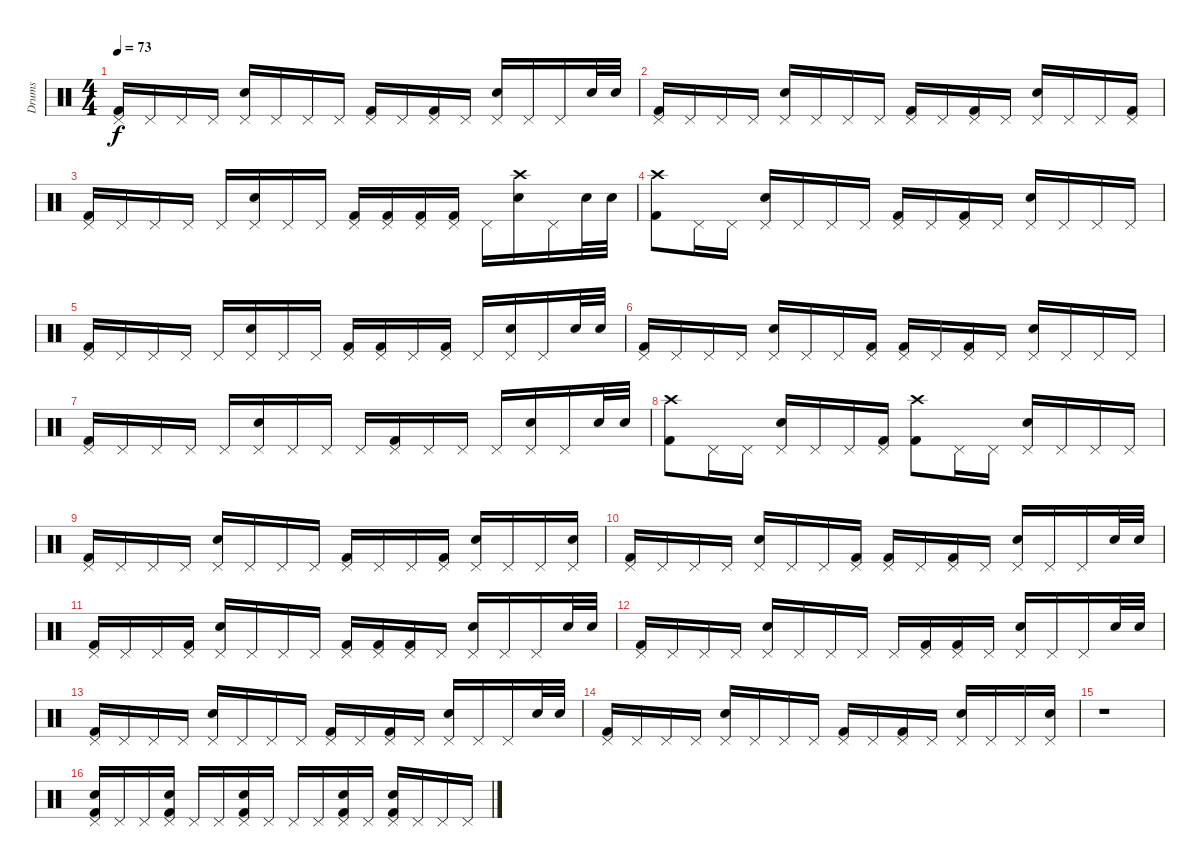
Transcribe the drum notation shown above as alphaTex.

\track ("Drums" "Drums") {instrument percussion}
\staff {score}
\articulation defaults
\ts (4 4)
\tempo 73
\clef neutral
\ks c
("Pedal Hi-Hat (hit)" "Kick (hit) 2").16{dy f} "Pedal Hi-Hat (hit)".16 "Pedal Hi-Hat (hit)".16 "Pedal Hi-Hat (hit)".16 ("Pedal Hi-Hat (hit)" "Snare (hit) 2").16 "Pedal Hi-Hat (hit)".16 "Pedal Hi-Hat (hit)".16 "Pedal Hi-Hat (hit)".16 ("Pedal Hi-Hat (hit)" "Kick (hit) 2").16 "Pedal Hi-Hat (hit)".16 ("Pedal Hi-Hat (hit)" "Kick (hit) 2").16 "Pedal Hi-Hat (hit)".16 ("Pedal Hi-Hat (hit)" "Snare (hit) 2").16 "Pedal Hi-Hat (hit)".16 "Pedal Hi-Hat (hit)".16 "Snare (hit) 2".32 "Snare (hit) 2".32 |
("Pedal Hi-Hat (hit)" "Kick (hit) 2").16 "Pedal Hi-Hat (hit)".16 "Pedal Hi-Hat (hit)".16 "Pedal Hi-Hat (hit)".16 ("Pedal Hi-Hat (hit)" "Snare (hit) 2").16 "Pedal Hi-Hat (hit)".16 "Pedal Hi-Hat (hit)".16 "Pedal Hi-Hat (hit)".16 ("Pedal Hi-Hat (hit)" "Kick (hit) 2").16 "Pedal Hi-Hat (hit)".16 ("Pedal Hi-Hat (hit)" "Kick (hit) 2").16 "Pedal Hi-Hat (hit)".16 ("Pedal Hi-Hat (hit)" "Snare (hit) 2").16 "Pedal Hi-Hat (hit)".16 "Pedal Hi-Hat (hit)".16 ("Pedal Hi-Hat (hit)" "Kick (hit) 2").16 |
("Pedal Hi-Hat (hit)" "Kick (hit) 2").16 "Pedal Hi-Hat (hit)".16 "Pedal Hi-Hat (hit)".16 "Pedal Hi-Hat (hit)".16 "Pedal Hi-Hat (hit)".16 ("Pedal Hi-Hat (hit)" "Snare (hit) 2").16 "Pedal Hi-Hat (hit)".16 "Pedal Hi-Hat (hit)".16 ("Pedal Hi-Hat (hit)" "Kick (hit) 2").16 ("Pedal Hi-Hat (hit)" "Kick (hit) 2").16 ("Pedal Hi-Hat (hit)" "Kick (hit) 2").16 ("Pedal Hi-Hat (hit)" "Kick (hit) 2").16 "Pedal Hi-Hat (hit)".16 ("Crash high (hit)" "Snare (hit) 2").16 "Pedal Hi-Hat (hit)".16 "Snare (hit) 2".32 "Snare (hit) 2".32 |
("Crash high (hit)" "Kick (hit) 2").8 "Pedal Hi-Hat (hit)".16 "Pedal Hi-Hat (hit)".16 ("Pedal Hi-Hat (hit)" "Snare (hit) 2").16 "Pedal Hi-Hat (hit)".16 "Pedal Hi-Hat (hit)".16 "Pedal Hi-Hat (hit)".16 ("Pedal Hi-Hat (hit)" "Kick (hit) 2").16 "Pedal Hi-Hat (hit)".16 ("Pedal Hi-Hat (hit)" "Kick (hit) 2").16 "Pedal Hi-Hat (hit)".16 ("Pedal Hi-Hat (hit)" "Snare (hit) 2").16 "Pedal Hi-Hat (hit)".16 "Pedal Hi-Hat (hit)".16 "Pedal Hi-Hat (hit)".16 |
("Pedal Hi-Hat (hit)" "Kick (hit) 2").16 "Pedal Hi-Hat (hit)".16 "Pedal Hi-Hat (hit)".16 "Pedal Hi-Hat (hit)".16 "Pedal Hi-Hat (hit)".16 ("Pedal Hi-Hat (hit)" "Snare (hit) 2").16 "Pedal Hi-Hat (hit)".16 "Pedal Hi-Hat (hit)".16 ("Pedal Hi-Hat (hit)" "Kick (hit) 2").16 ("Pedal Hi-Hat (hit)" "Kick (hit) 2").16 "Pedal Hi-Hat (hit)".16 ("Pedal Hi-Hat (hit)" "Kick (hit) 2").16 "Pedal Hi-Hat (hit)".16 ("Pedal Hi-Hat (hit)" "Snare (hit) 2").16 "Pedal Hi-Hat (hit)".16 "Snare (hit) 2".32 "Snare (hit) 2".32 |
("Pedal Hi-Hat (hit)" "Kick (hit) 2").16 "Pedal Hi-Hat (hit)".16 "Pedal Hi-Hat (hit)".16 "Pedal Hi-Hat (hit)".16 ("Pedal Hi-Hat (hit)" "Snare (hit) 2").16 "Pedal Hi-Hat (hit)".16 "Pedal Hi-Hat (hit)".16 ("Pedal Hi-Hat (hit)" "Kick (hit) 2").16 ("Pedal Hi-Hat (hit)" "Kick (hit) 2").16 "Pedal Hi-Hat (hit)".16 ("Pedal Hi-Hat (hit)" "Kick (hit) 2").16 "Pedal Hi-Hat (hit)".16 ("Pedal Hi-Hat (hit)" "Snare (hit) 2").16 "Pedal Hi-Hat (hit)".16 "Pedal Hi-Hat (hit)".16 "Pedal Hi-Hat (hit)".16 |
("Pedal Hi-Hat (hit)" "Kick (hit) 2").16 "Pedal Hi-Hat (hit)".16 "Pedal Hi-Hat (hit)".16 "Pedal Hi-Hat (hit)".16 "Pedal Hi-Hat (hit)".16 ("Pedal Hi-Hat (hit)" "Snare (hit) 2").16 "Pedal Hi-Hat (hit)".16 "Pedal Hi-Hat (hit)".16 "Pedal Hi-Hat (hit)".16 ("Pedal Hi-Hat (hit)" "Kick (hit) 2").16 "Pedal Hi-Hat (hit)".16 "Pedal Hi-Hat (hit)".16 "Pedal Hi-Hat (hit)".16 ("Pedal Hi-Hat (hit)" "Snare (hit) 2").16 "Pedal Hi-Hat (hit)".16 "Snare (hit) 2".32 "Snare (hit) 2".32 |
("Crash high (hit)" "Kick (hit) 2").8 "Pedal Hi-Hat (hit)".16 "Pedal Hi-Hat (hit)".16 ("Pedal Hi-Hat (hit)" "Snare (hit) 2").16 "Pedal Hi-Hat (hit)".16 "Pedal Hi-Hat (hit)".16 ("Pedal Hi-Hat (hit)" "Kick (hit) 2").16 ("Crash high (hit)" "Kick (hit) 2").8 "Pedal Hi-Hat (hit)".16 "Pedal Hi-Hat (hit)".16 ("Pedal Hi-Hat (hit)" "Snare (hit) 2").16 "Pedal Hi-Hat (hit)".16 "Pedal Hi-Hat (hit)".16 "Pedal Hi-Hat (hit)".16 |
("Pedal Hi-Hat (hit)" "Kick (hit) 2").16 "Pedal Hi-Hat (hit)".16 "Pedal Hi-Hat (hit)".16 "Pedal Hi-Hat (hit)".16 ("Pedal Hi-Hat (hit)" "Snare (hit) 2").16 "Pedal Hi-Hat (hit)".16 "Pedal Hi-Hat (hit)".16 "Pedal Hi-Hat (hit)".16 ("Pedal Hi-Hat (hit)" "Kick (hit) 2").16 "Pedal Hi-Hat (hit)".16 "Pedal Hi-Hat (hit)".16 ("Pedal Hi-Hat (hit)" "Kick (hit) 2").16 ("Pedal Hi-Hat (hit)" "Snare (hit) 2").16 "Pedal Hi-Hat (hit)".16 "Pedal Hi-Hat (hit)".16 ("Pedal Hi-Hat (hit)" "Snare (hit) 2").16 |
("Pedal Hi-Hat (hit)" "Kick (hit) 2").16 "Pedal Hi-Hat (hit)".16 "Pedal Hi-Hat (hit)".16 "Pedal Hi-Hat (hit)".16 ("Pedal Hi-Hat (hit)" "Snare (hit) 2").16 "Pedal Hi-Hat (hit)".16 "Pedal Hi-Hat (hit)".16 ("Pedal Hi-Hat (hit)" "Kick (hit) 2").16 ("Pedal Hi-Hat (hit)" "Kick (hit) 2").16 "Pedal Hi-Hat (hit)".16 ("Pedal Hi-Hat (hit)" "Kick (hit) 2").16 "Pedal Hi-Hat (hit)".16 ("Pedal Hi-Hat (hit)" "Snare (hit) 2").16 "Pedal Hi-Hat (hit)".16 "Pedal Hi-Hat (hit)".16 "Snare (hit) 2".32 "Snare (hit) 2".32 |
("Pedal Hi-Hat (hit)" "Kick (hit) 2").16 "Pedal Hi-Hat (hit)".16 "Pedal Hi-Hat (hit)".16 ("Pedal Hi-Hat (hit)" "Kick (hit) 2").16 ("Pedal Hi-Hat (hit)" "Snare (hit) 2").16 "Pedal Hi-Hat (hit)".16 "Pedal Hi-Hat (hit)".16 "Pedal Hi-Hat (hit)".16 ("Pedal Hi-Hat (hit)" "Kick (hit) 2").16 ("Pedal Hi-Hat (hit)" "Kick (hit) 2").16 ("Pedal Hi-Hat (hit)" "Kick (hit) 2").16 "Pedal Hi-Hat (hit)".16 ("Pedal Hi-Hat (hit)" "Snare (hit) 2").16 "Pedal Hi-Hat (hit)".16 "Pedal Hi-Hat (hit)".16 "Snare (hit) 2".32 "Snare (hit) 2".32 |
("Pedal Hi-Hat (hit)" "Kick (hit) 2").16 "Pedal Hi-Hat (hit)".16 "Pedal Hi-Hat (hit)".16 "Pedal Hi-Hat (hit)".16 ("Pedal Hi-Hat (hit)" "Snare (hit) 2").16 "Pedal Hi-Hat (hit)".16 "Pedal Hi-Hat (hit)".16 "Pedal Hi-Hat (hit)".16 "Pedal Hi-Hat (hit)".16 ("Pedal Hi-Hat (hit)" "Kick (hit) 2").16 ("Pedal Hi-Hat (hit)" "Kick (hit) 2").16 "Pedal Hi-Hat (hit)".16 ("Pedal Hi-Hat (hit)" "Snare (hit) 2").16 "Pedal Hi-Hat (hit)".16 "Pedal Hi-Hat (hit)".16 "Snare (hit) 2".32 "Snare (hit) 2".32 |
("Pedal Hi-Hat (hit)" "Kick (hit) 2").16 "Pedal Hi-Hat (hit)".16 "Pedal Hi-Hat (hit)".16 "Pedal Hi-Hat (hit)".16 ("Pedal Hi-Hat (hit)" "Snare (hit) 2").16 "Pedal Hi-Hat (hit)".16 "Pedal Hi-Hat (hit)".16 "Pedal Hi-Hat (hit)".16 ("Pedal Hi-Hat (hit)" "Kick (hit) 2").16 "Pedal Hi-Hat (hit)".16 ("Pedal Hi-Hat (hit)" "Kick (hit) 2").16 "Pedal Hi-Hat (hit)".16 ("Pedal Hi-Hat (hit)" "Snare (hit) 2").16 "Pedal Hi-Hat (hit)".16 "Pedal Hi-Hat (hit)".16 "Snare (hit) 2".32 "Snare (hit) 2".32 |
("Pedal Hi-Hat (hit)" "Kick (hit) 2").16 "Pedal Hi-Hat (hit)".16 "Pedal Hi-Hat (hit)".16 "Pedal Hi-Hat (hit)".16 ("Pedal Hi-Hat (hit)" "Snare (hit) 2").16 "Pedal Hi-Hat (hit)".16 "Pedal Hi-Hat (hit)".16 "Pedal Hi-Hat (hit)".16 ("Pedal Hi-Hat (hit)" "Kick (hit) 2").16 "Pedal Hi-Hat (hit)".16 ("Pedal Hi-Hat (hit)" "Kick (hit) 2").16 "Pedal Hi-Hat (hit)".16 ("Pedal Hi-Hat (hit)" "Snare (hit) 2").16 "Pedal Hi-Hat (hit)".16 "Pedal Hi-Hat (hit)".16 ("Pedal Hi-Hat (hit)" "Snare (hit) 2").16 |
r.1 |
("Pedal Hi-Hat (hit)" "Snare (hit) 2" "Kick (hit) 2").16 "Pedal Hi-Hat (hit)".16 "Pedal Hi-Hat (hit)".16 ("Pedal Hi-Hat (hit)" "Snare (hit) 2" "Kick (hit) 2").16 "Pedal Hi-Hat (hit)".16 "Pedal Hi-Hat (hit)".16 ("Pedal Hi-Hat (hit)" "Snare (hit) 2" "Kick (hit) 2").16 "Pedal Hi-Hat (hit)".16 "Pedal Hi-Hat (hit)".16 "Pedal Hi-Hat (hit)".16 ("Pedal Hi-Hat (hit)" "Snare (hit) 2" "Kick (hit) 2").16 "Pedal Hi-Hat (hit)".16 ("Pedal Hi-Hat (hit)" "Snare (hit) 2" "Kick (hit) 2").16 "Pedal Hi-Hat (hit)".16 "Pedal Hi-Hat (hit)".16 "Pedal Hi-Hat (hit)".16
